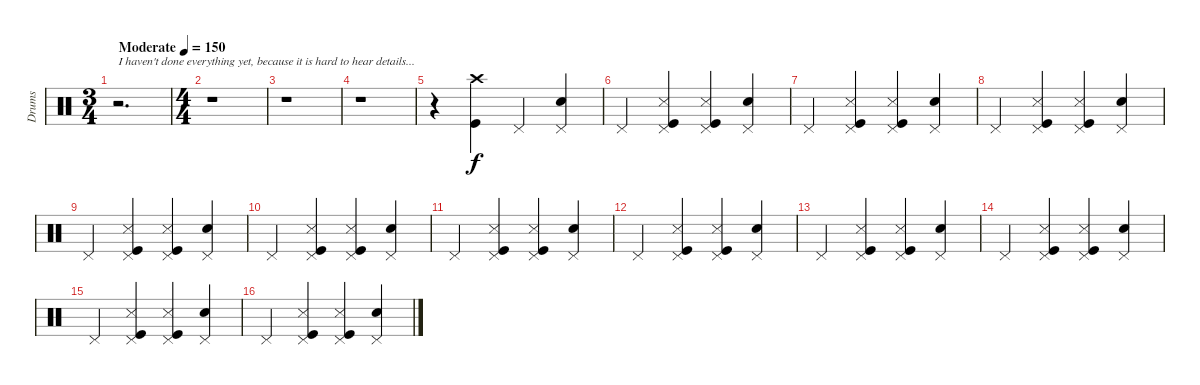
\track ("Drums" "Drums") {instrument percussion}
\staff {score}
\articulation defaults
\ts (3 4)
\tempo (150 "Moderate")
\clef neutral
\ks c
r.2{d txt "I haven't done everything yet, because it is hard to hear details..." dy f} |
\ts (4 4)
r.1 |
r.1 |
r.1 |
r.4 ("Crash high (hit)" "Kick (hit)").4 "Pedal Hi-Hat (hit)".4 ("Pedal Hi-Hat (hit)" "Snare (hit) 2").4 |
"Pedal Hi-Hat (hit)".4 ("Pedal Hi-Hat (hit)" "Snare (side stick) 3" "Kick (hit)").4 ("Pedal Hi-Hat (hit)" "Snare (side stick) 3" "Kick (hit)").4 ("Pedal Hi-Hat (hit)" "Snare (hit) 2").4 |
"Pedal Hi-Hat (hit)".4 ("Pedal Hi-Hat (hit)" "Snare (side stick) 3" "Kick (hit)").4 ("Pedal Hi-Hat (hit)" "Snare (side stick) 3" "Kick (hit)").4 ("Pedal Hi-Hat (hit)" "Snare (hit) 2").4 |
"Pedal Hi-Hat (hit)".4 ("Pedal Hi-Hat (hit)" "Snare (side stick) 3" "Kick (hit)").4 ("Pedal Hi-Hat (hit)" "Snare (side stick) 3" "Kick (hit)").4 ("Pedal Hi-Hat (hit)" "Snare (hit) 2").4 |
"Pedal Hi-Hat (hit)".4 ("Pedal Hi-Hat (hit)" "Snare (side stick) 3" "Kick (hit)").4 ("Pedal Hi-Hat (hit)" "Snare (side stick) 3" "Kick (hit)").4 ("Pedal Hi-Hat (hit)" "Snare (hit) 2").4 |
"Pedal Hi-Hat (hit)".4 ("Pedal Hi-Hat (hit)" "Snare (side stick) 3" "Kick (hit)").4 ("Pedal Hi-Hat (hit)" "Snare (side stick) 3" "Kick (hit)").4 ("Pedal Hi-Hat (hit)" "Snare (hit) 2").4 |
"Pedal Hi-Hat (hit)".4 ("Pedal Hi-Hat (hit)" "Snare (side stick) 3" "Kick (hit)").4 ("Pedal Hi-Hat (hit)" "Snare (side stick) 3" "Kick (hit)").4 ("Pedal Hi-Hat (hit)" "Snare (hit) 2").4 |
"Pedal Hi-Hat (hit)".4 ("Pedal Hi-Hat (hit)" "Snare (side stick) 3" "Kick (hit)").4 ("Pedal Hi-Hat (hit)" "Snare (side stick) 3" "Kick (hit)").4 ("Pedal Hi-Hat (hit)" "Snare (hit) 2").4 |
"Pedal Hi-Hat (hit)".4 ("Pedal Hi-Hat (hit)" "Snare (side stick) 3" "Kick (hit)").4 ("Pedal Hi-Hat (hit)" "Snare (side stick) 3" "Kick (hit)").4 ("Pedal Hi-Hat (hit)" "Snare (hit) 2").4 |
"Pedal Hi-Hat (hit)".4 ("Pedal Hi-Hat (hit)" "Snare (side stick) 3" "Kick (hit)").4 ("Pedal Hi-Hat (hit)" "Snare (side stick) 3" "Kick (hit)").4 ("Pedal Hi-Hat (hit)" "Snare (hit) 2").4 |
"Pedal Hi-Hat (hit)".4 ("Pedal Hi-Hat (hit)" "Snare (side stick) 3" "Kick (hit)").4 ("Pedal Hi-Hat (hit)" "Snare (side stick) 3" "Kick (hit)").4 ("Pedal Hi-Hat (hit)" "Snare (hit) 2").4 |
"Pedal Hi-Hat (hit)".4 ("Pedal Hi-Hat (hit)" "Snare (side stick) 3" "Kick (hit)").4 ("Pedal Hi-Hat (hit)" "Snare (side stick) 3" "Kick (hit)").4 ("Pedal Hi-Hat (hit)" "Snare (hit) 2").4
